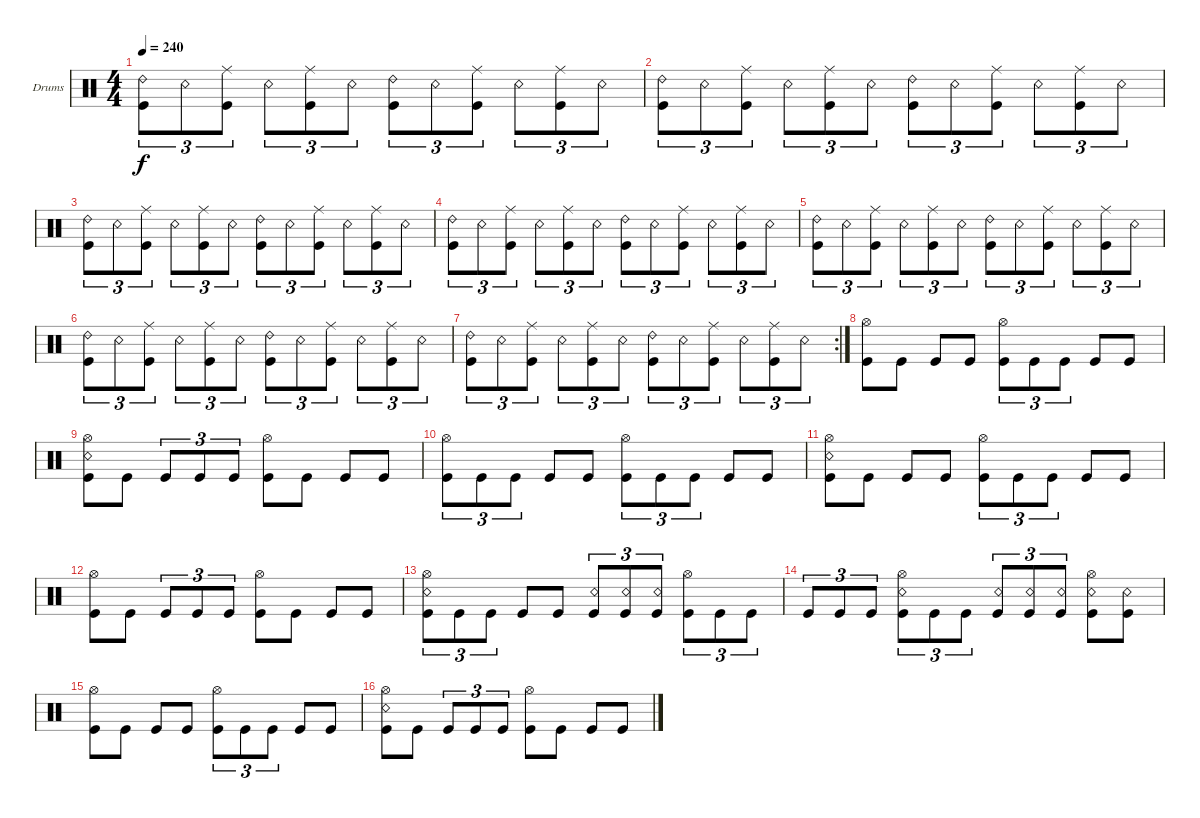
\bracketExtendMode groupsimilarinstruments
\firstSystemTrackNameOrientation horizontal
\otherSystemsTrackNameOrientation horizontal
\track ("Drumkit" "Drums") {instrument percussion}
\staff {score}
\articulation defaults
\ts (4 4)
\tempo 240
\clef neutral
\ks c
("Ride (bell) 2" "Kick (hit)").8{tu (3 2) dy f} "Snare (rim shot)".8{tu (3 2)} ("Ride (middle)" "Kick (hit)").8{tu (3 2)} "Snare (rim shot)".8{tu (3 2)} ("Ride (middle)" "Kick (hit)").8{tu (3 2)} "Snare (rim shot)".8{tu (3 2)} ("Ride (bell) 2" "Kick (hit)").8{tu (3 2)} "Snare (rim shot)".8{tu (3 2)} ("Ride (middle)" "Kick (hit)").8{tu (3 2)} "Snare (rim shot)".8{tu (3 2)} ("Ride (middle)" "Kick (hit)").8{tu (3 2)} "Snare (rim shot)".8{tu (3 2)} |
("Ride (bell) 2" "Kick (hit)").8{tu (3 2)} "Snare (rim shot)".8{tu (3 2)} ("Ride (middle)" "Kick (hit)").8{tu (3 2)} "Snare (rim shot)".8{tu (3 2)} ("Ride (middle)" "Kick (hit)").8{tu (3 2)} "Snare (rim shot)".8{tu (3 2)} ("Ride (bell) 2" "Kick (hit)").8{tu (3 2)} "Snare (rim shot)".8{tu (3 2)} ("Ride (middle)" "Kick (hit)").8{tu (3 2)} "Snare (rim shot)".8{tu (3 2)} ("Ride (middle)" "Kick (hit)").8{tu (3 2)} "Snare (rim shot)".8{tu (3 2)} |
("Ride (bell) 2" "Kick (hit)").8{tu (3 2)} "Snare (rim shot)".8{tu (3 2)} ("Ride (middle)" "Kick (hit)").8{tu (3 2)} "Snare (rim shot)".8{tu (3 2)} ("Ride (middle)" "Kick (hit)").8{tu (3 2)} "Snare (rim shot)".8{tu (3 2)} ("Ride (bell) 2" "Kick (hit)").8{tu (3 2)} "Snare (rim shot)".8{tu (3 2)} ("Ride (middle)" "Kick (hit)").8{tu (3 2)} "Snare (rim shot)".8{tu (3 2)} ("Ride (middle)" "Kick (hit)").8{tu (3 2)} "Snare (rim shot)".8{tu (3 2)} |
("Ride (bell) 2" "Kick (hit)").8{tu (3 2)} "Snare (rim shot)".8{tu (3 2)} ("Ride (middle)" "Kick (hit)").8{tu (3 2)} "Snare (rim shot)".8{tu (3 2)} ("Ride (middle)" "Kick (hit)").8{tu (3 2)} "Snare (rim shot)".8{tu (3 2)} ("Ride (bell) 2" "Kick (hit)").8{tu (3 2)} "Snare (rim shot)".8{tu (3 2)} ("Ride (middle)" "Kick (hit)").8{tu (3 2)} "Snare (rim shot)".8{tu (3 2)} ("Ride (middle)" "Kick (hit)").8{tu (3 2)} "Snare (rim shot)".8{tu (3 2)} |
("Ride (bell) 2" "Kick (hit)").8{tu (3 2)} "Snare (rim shot)".8{tu (3 2)} ("Ride (middle)" "Kick (hit)").8{tu (3 2)} "Snare (rim shot)".8{tu (3 2)} ("Ride (middle)" "Kick (hit)").8{tu (3 2)} "Snare (rim shot)".8{tu (3 2)} ("Ride (bell) 2" "Kick (hit)").8{tu (3 2)} "Snare (rim shot)".8{tu (3 2)} ("Ride (middle)" "Kick (hit)").8{tu (3 2)} "Snare (rim shot)".8{tu (3 2)} ("Ride (middle)" "Kick (hit)").8{tu (3 2)} "Snare (rim shot)".8{tu (3 2)} |
("Ride (bell) 2" "Kick (hit)").8{tu (3 2)} "Snare (rim shot)".8{tu (3 2)} ("Ride (middle)" "Kick (hit)").8{tu (3 2)} "Snare (rim shot)".8{tu (3 2)} ("Ride (middle)" "Kick (hit)").8{tu (3 2)} "Snare (rim shot)".8{tu (3 2)} ("Ride (bell) 2" "Kick (hit)").8{tu (3 2)} "Snare (rim shot)".8{tu (3 2)} ("Ride (middle)" "Kick (hit)").8{tu (3 2)} "Snare (rim shot)".8{tu (3 2)} ("Ride (middle)" "Kick (hit)").8{tu (3 2)} "Snare (rim shot)".8{tu (3 2)} |
\rc 2
("Ride (bell) 2" "Kick (hit)").8{tu (3 2)} "Snare (rim shot)".8{tu (3 2)} ("Ride (middle)" "Kick (hit)").8{tu (3 2)} "Snare (rim shot)".8{tu (3 2)} ("Ride (middle)" "Kick (hit)").8{tu (3 2)} "Snare (rim shot)".8{tu (3 2)} ("Ride (bell) 2" "Kick (hit)").8{tu (3 2)} "Snare (rim shot)".8{tu (3 2)} ("Ride (middle)" "Kick (hit)").8{tu (3 2)} "Snare (rim shot)".8{tu (3 2)} ("Ride (middle)" "Kick (hit)").8{tu (3 2)} "Snare (rim shot)".8{tu (3 2)} |
("Hi-Hat (open)" "Kick (hit)").8 "Kick (hit)".8 "Kick (hit)".8 "Kick (hit)".8 ("Hi-Hat (open)" "Kick (hit)").8{tu (3 2)} "Kick (hit)".8{tu (3 2)} "Kick (hit)".8{tu (3 2)} "Kick (hit)".8 "Kick (hit)".8 |
("Kick (hit)" "Hi-Hat (open)" "Snare (rim shot)").8 "Kick (hit)".8 "Kick (hit)".8{tu (3 2)} "Kick (hit)".8{tu (3 2)} "Kick (hit)".8{tu (3 2)} ("Kick (hit)" "Hi-Hat (open)").8 "Kick (hit)".8 "Kick (hit)".8 "Kick (hit)".8 |
("Kick (hit)" "Hi-Hat (open)").8{tu (3 2)} "Kick (hit)".8{tu (3 2)} "Kick (hit)".8{tu (3 2)} "Kick (hit)".8 "Kick (hit)".8 ("Kick (hit)" "Hi-Hat (open)").8{tu (3 2)} "Kick (hit)".8{tu (3 2)} "Kick (hit)".8{tu (3 2)} "Kick (hit)".8 "Kick (hit)".8 |
("Hi-Hat (open)" "Kick (hit)" "Snare (rim shot)").8 "Kick (hit)".8 "Kick (hit)".8 "Kick (hit)".8 ("Hi-Hat (open)" "Kick (hit)").8{tu (3 2)} "Kick (hit)".8{tu (3 2)} "Kick (hit)".8{tu (3 2)} "Kick (hit)".8 "Kick (hit)".8 |
("Kick (hit)" "Hi-Hat (open)").8 "Kick (hit)".8 "Kick (hit)".8{tu (3 2)} "Kick (hit)".8{tu (3 2)} "Kick (hit)".8{tu (3 2)} ("Kick (hit)" "Hi-Hat (open)").8 "Kick (hit)".8 "Kick (hit)".8 "Kick (hit)".8 |
("Kick (hit)" "Hi-Hat (open)" "Snare (rim shot)").8{tu (3 2)} "Kick (hit)".8{tu (3 2)} "Kick (hit)".8{tu (3 2)} "Kick (hit)".8 "Kick (hit)".8 ("Kick (hit)" "Snare (rim shot)").8{tu (3 2)} ("Kick (hit)" "Snare (rim shot)").8{tu (3 2)} ("Kick (hit)" "Snare (rim shot)").8{tu (3 2)} ("Kick (hit)" "Hi-Hat (open)").8{tu (3 2)} "Kick (hit)".8{tu (3 2)} "Kick (hit)".8{tu (3 2)} |
"Kick (hit)".8{tu (3 2)} "Kick (hit)".8{tu (3 2)} "Kick (hit)".8{tu (3 2)} ("Kick (hit)" "Hi-Hat (open)" "Snare (rim shot)").8{tu (3 2)} "Kick (hit)".8{tu (3 2)} "Kick (hit)".8{tu (3 2)} ("Kick (hit)" "Snare (rim shot)").8{tu (3 2)} ("Kick (hit)" "Snare (rim shot)").8{tu (3 2)} ("Kick (hit)" "Snare (rim shot)").8{tu (3 2)} ("Kick (hit)" "Hi-Hat (open)" "Snare (rim shot)").8 ("Kick (hit)" "Snare (rim shot)").8 |
("Hi-Hat (open)" "Kick (hit)").8 "Kick (hit)".8 "Kick (hit)".8 "Kick (hit)".8 ("Hi-Hat (open)" "Kick (hit)").8{tu (3 2)} "Kick (hit)".8{tu (3 2)} "Kick (hit)".8{tu (3 2)} "Kick (hit)".8 "Kick (hit)".8 |
("Kick (hit)" "Hi-Hat (open)" "Snare (rim shot)").8 "Kick (hit)".8 "Kick (hit)".8{tu (3 2)} "Kick (hit)".8{tu (3 2)} "Kick (hit)".8{tu (3 2)} ("Kick (hit)" "Hi-Hat (open)").8 "Kick (hit)".8 "Kick (hit)".8 "Kick (hit)".8
